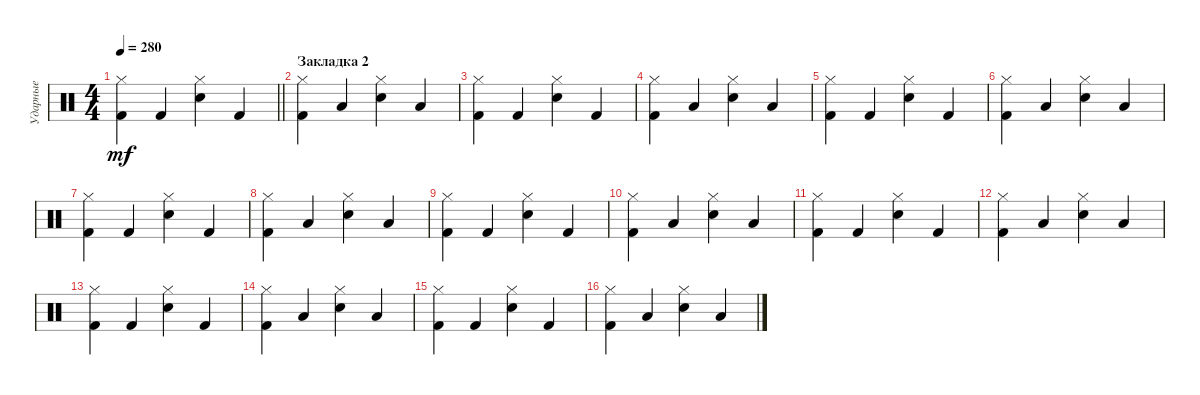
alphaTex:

\track ("Ударные" "Ударные") {instrument percussion}
\staff {score}
\articulation defaults
\ts (4 4)
\tempo 280
\clef neutral
\barLineRight lightlight
\ks c
("Kick (hit) 2" "Hi-Hat (closed)").4{dy mf} "Kick (hit) 2".4 ("Snare (hit) 2" "Hi-Hat (closed)").4 "Kick (hit) 2".4 |
\section ("" "Закладка 2")
("Kick (hit) 2" "Hi-Hat (closed)").4 "Low Floor Tom (hit)".4 ("Snare (hit) 2" "Hi-Hat (closed)").4 "Low Floor Tom (hit)".4 |
("Kick (hit) 2" "Hi-Hat (closed)").4 "Kick (hit) 2".4 ("Snare (hit) 2" "Hi-Hat (closed)").4 "Kick (hit) 2".4 |
("Kick (hit) 2" "Hi-Hat (closed)").4 "Low Floor Tom (hit)".4 ("Snare (hit) 2" "Hi-Hat (closed)").4 "Low Floor Tom (hit)".4 |
("Kick (hit) 2" "Hi-Hat (closed)").4 "Kick (hit) 2".4 ("Snare (hit) 2" "Hi-Hat (closed)").4 "Kick (hit) 2".4 |
("Kick (hit) 2" "Hi-Hat (closed)").4 "Low Floor Tom (hit)".4 ("Snare (hit) 2" "Hi-Hat (closed)").4 "Low Floor Tom (hit)".4 |
("Kick (hit) 2" "Hi-Hat (closed)").4 "Kick (hit) 2".4 ("Snare (hit) 2" "Hi-Hat (closed)").4 "Kick (hit) 2".4 |
("Kick (hit) 2" "Hi-Hat (closed)").4 "Low Floor Tom (hit)".4 ("Snare (hit) 2" "Hi-Hat (closed)").4 "Low Floor Tom (hit)".4 |
("Kick (hit) 2" "Hi-Hat (closed)").4 "Kick (hit) 2".4 ("Snare (hit) 2" "Hi-Hat (closed)").4 "Kick (hit) 2".4 |
("Kick (hit) 2" "Hi-Hat (closed)").4 "Low Floor Tom (hit)".4 ("Snare (hit) 2" "Hi-Hat (closed)").4 "Low Floor Tom (hit)".4 |
("Kick (hit) 2" "Hi-Hat (closed)").4 "Kick (hit) 2".4 ("Snare (hit) 2" "Hi-Hat (closed)").4 "Kick (hit) 2".4 |
("Kick (hit) 2" "Hi-Hat (closed)").4 "Low Floor Tom (hit)".4 ("Snare (hit) 2" "Hi-Hat (closed)").4 "Low Floor Tom (hit)".4 |
("Kick (hit) 2" "Hi-Hat (closed)").4 "Kick (hit) 2".4 ("Snare (hit) 2" "Hi-Hat (closed)").4 "Kick (hit) 2".4 |
("Kick (hit) 2" "Hi-Hat (closed)").4 "Low Floor Tom (hit)".4 ("Snare (hit) 2" "Hi-Hat (closed)").4 "Low Floor Tom (hit)".4 |
("Kick (hit) 2" "Hi-Hat (closed)").4 "Kick (hit) 2".4 ("Snare (hit) 2" "Hi-Hat (closed)").4 "Kick (hit) 2".4 |
("Kick (hit) 2" "Hi-Hat (closed)").4 "Low Floor Tom (hit)".4 ("Snare (hit) 2" "Hi-Hat (closed)").4 "Low Floor Tom (hit)".4
